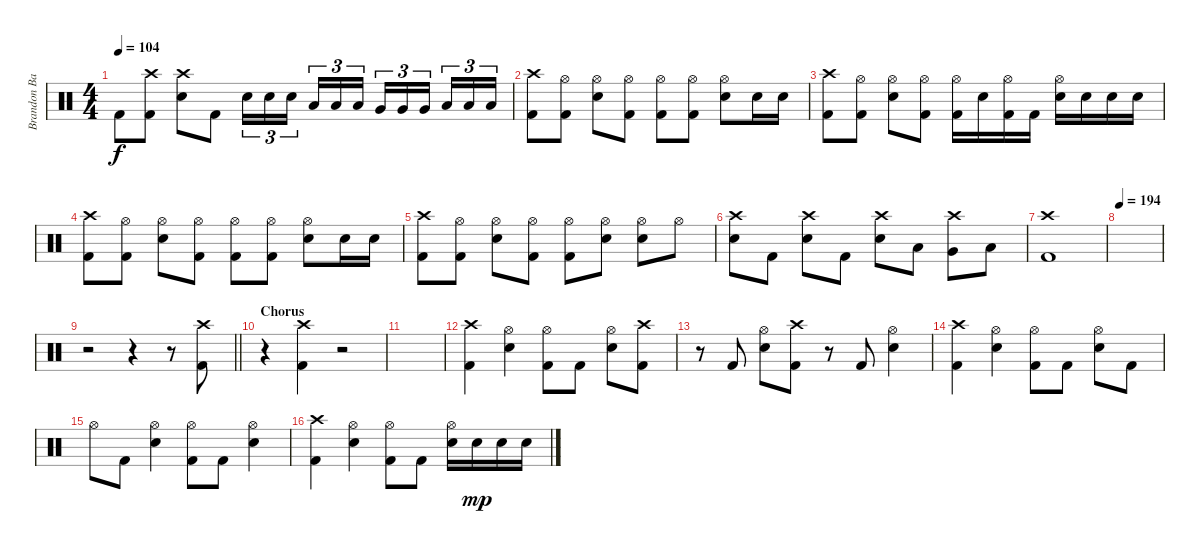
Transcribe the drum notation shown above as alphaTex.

\track ("Brandon Barnes - Drums" "Brandon Ba") {instrument percussion}
\staff {score}
\articulation defaults
\ts (4 4)
\tempo 104
\clef neutral
\ks c "Kick (hit) 2".8{dy f}
("Kick (hit) 2" "Crash high (hit)").8 ("Snare (hit) 2" "Crash high (hit)").8 "Kick (hit) 2".8 "Snare (hit) 2".16{tu (3 2)} "Snare (hit) 2".16{tu (3 2)} "Snare (hit) 2".16{tu (3 2) beam splitsecondary} "Low Tom (hit)".16{tu (3 2)} "Low Tom (hit)".16{tu (3 2)} "Low Tom (hit)".16{tu (3 2)} "Very Low Tom (hit)".16{tu (3 2)} "Very Low Tom (hit)".16{tu (3 2)} "Very Low Tom (hit)".16{tu (3 2) beam splitsecondary} "Low Floor Tom (hit)".16{tu (3 2)} "Low Floor Tom (hit)".16{tu (3 2)} "Low Floor Tom (hit)".16{tu (3 2)} |
("Kick (hit) 2" "Crash high (hit)").8 ("Kick (hit) 2" "Hi-Hat (open)").8 ("Snare (hit) 2" "Hi-Hat (open)").8 ("Kick (hit) 2" "Hi-Hat (open)").8 ("Kick (hit) 2" "Hi-Hat (open)").8 ("Kick (hit) 2" "Hi-Hat (open)").8 ("Snare (hit) 2" "Hi-Hat (open)").8 "Snare (hit) 2".16 "Snare (hit) 2".16 |
("Kick (hit) 2" "Crash high (hit)").8 ("Kick (hit) 2" "Hi-Hat (open)").8 ("Snare (hit) 2" "Hi-Hat (open)").8 ("Kick (hit) 2" "Hi-Hat (open)").8 ("Kick (hit) 2" "Hi-Hat (open)").16 "Snare (hit) 2".16 ("Kick (hit) 2" "Hi-Hat (open)").16 "Kick (hit) 2".16 ("Snare (hit) 2" "Hi-Hat (open)").16 "Snare (hit) 2".16 "Snare (hit) 2".16 "Snare (hit) 2".16 |
("Kick (hit) 2" "Crash high (hit)").8 ("Kick (hit) 2" "Hi-Hat (open)").8 ("Snare (hit) 2" "Hi-Hat (open)").8 ("Kick (hit) 2" "Hi-Hat (open)").8 ("Kick (hit) 2" "Hi-Hat (open)").8 ("Kick (hit) 2" "Hi-Hat (open)").8 ("Snare (hit) 2" "Hi-Hat (open)").8 "Snare (hit) 2".16 "Snare (hit) 2".16 |
("Kick (hit) 2" "Crash high (hit)").8 ("Kick (hit) 2" "Hi-Hat (open)").8 ("Snare (hit) 2" "Hi-Hat (open)").8 ("Kick (hit) 2" "Hi-Hat (open)").8 ("Kick (hit) 2" "Hi-Hat (open)").8 ("Snare (hit) 2" "Hi-Hat (open)").8 ("Snare (hit) 2" "Hi-Hat (open)").8 "Hi-Hat (open)".8 |
("Crash high (hit)" "Snare (hit) 2").8 "Kick (hit) 2".8 ("Crash high (hit)" "Snare (hit) 2").8 "Kick (hit) 2".8 ("Crash high (hit)" "Snare (hit) 2").8 "Low Tom (hit)".8 ("Very Low Tom (hit)" "Crash high (hit)").8 "Low Floor Tom (hit)".8 |
("Kick (hit) 2" "Crash high (hit)").1 |
\tempo 194
|
\barLineRight lightlight
r.2 r.4 r.8 ("Crash high (hit)" "Kick (hit) 2").8 |
\section ("" "Chorus")
r.4 ("Crash high (hit)" "Kick (hit) 2").4 r.2 |
|
("Crash high (hit)" "Kick (hit) 2").4 ("Snare (hit) 2" "Hi-Hat (open)").4 ("Kick (hit) 2" "Hi-Hat (open)").8 "Kick (hit) 2".8 ("Snare (hit) 2" "Hi-Hat (open)").8 ("Kick (hit) 2" "Crash high (hit)").8 |
r.8 "Kick (hit) 2".8 ("Snare (hit) 2" "Hi-Hat (open)").8 ("Kick (hit) 2" "Crash high (hit)").8 r.8 "Kick (hit) 2".8 ("Snare (hit) 2" "Hi-Hat (open)").4 |
("Crash high (hit)" "Kick (hit) 2").4 ("Snare (hit) 2" "Hi-Hat (open)").4 ("Kick (hit) 2" "Hi-Hat (open)").8 "Kick (hit) 2".8 ("Snare (hit) 2" "Hi-Hat (open)").8 "Kick (hit) 2".8 |
"Hi-Hat (open)".8 "Kick (hit) 2".8 ("Snare (hit) 2" "Hi-Hat (open)").4 ("Kick (hit) 2" "Hi-Hat (open)").8 "Kick (hit) 2".8 ("Snare (hit) 2" "Hi-Hat (open)").4 |
("Crash high (hit)" "Kick (hit) 2").4 ("Snare (hit) 2" "Hi-Hat (open)").4 ("Kick (hit) 2" "Hi-Hat (open)").8 "Kick (hit) 2".8 ("Snare (hit) 2" "Hi-Hat (open)").16 "Snare (hit) 2".16{dy mp} "Snare (hit) 2".16 "Snare (hit) 2".16
